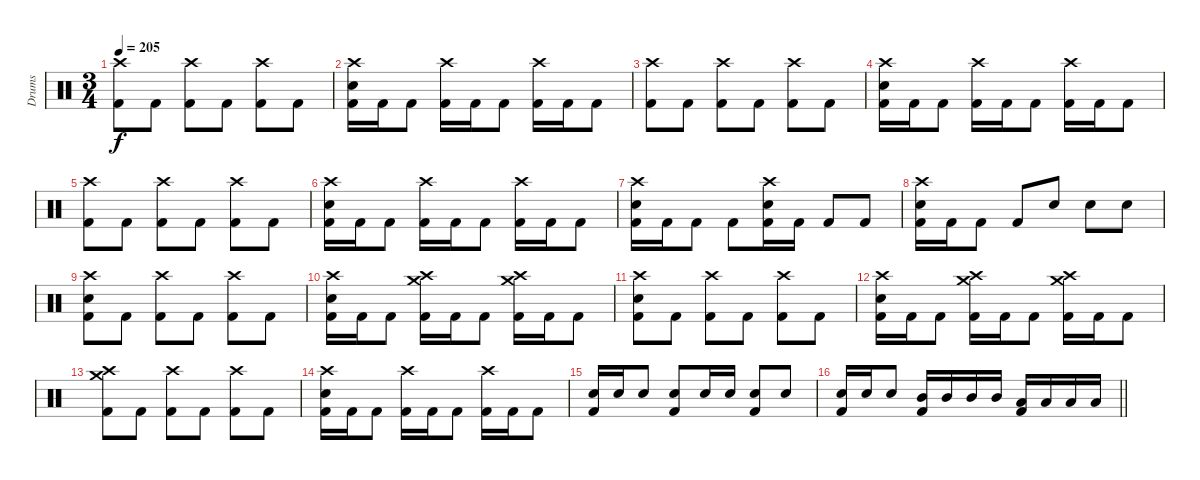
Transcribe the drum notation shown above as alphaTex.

\track ("Drums" "Drums") {instrument percussion}
\staff {score}
\articulation defaults
\ts (3 4)
\tempo 205
\clef neutral
\ks c
("Crash high (hit)" "Kick (hit) 2").8{dy f} "Kick (hit) 2".8 ("Crash high (hit)" "Kick (hit) 2").8 "Kick (hit) 2".8 ("Crash high (hit)" "Kick (hit) 2").8 "Kick (hit) 2".8 |
("Crash high (hit)" "Snare (hit) 2" "Kick (hit) 2").16 "Kick (hit) 2".16 "Kick (hit) 2".8 ("Crash high (hit)" "Kick (hit) 2").16 "Kick (hit) 2".16 "Kick (hit) 2".8 ("Crash high (hit)" "Kick (hit) 2").16 "Kick (hit) 2".16 "Kick (hit) 2".8 |
("Crash high (hit)" "Kick (hit) 2").8 "Kick (hit) 2".8 ("Crash high (hit)" "Kick (hit) 2").8 "Kick (hit) 2".8 ("Crash high (hit)" "Kick (hit) 2").8 "Kick (hit) 2".8 |
("Crash high (hit)" "Snare (hit) 2" "Kick (hit) 2").16 "Kick (hit) 2".16 "Kick (hit) 2".8 ("Crash high (hit)" "Kick (hit) 2").16 "Kick (hit) 2".16 "Kick (hit) 2".8 ("Crash high (hit)" "Kick (hit) 2").16 "Kick (hit) 2".16 "Kick (hit) 2".8 |
("Crash high (hit)" "Kick (hit) 2").8 "Kick (hit) 2".8 ("Crash high (hit)" "Kick (hit) 2").8 "Kick (hit) 2".8 ("Crash high (hit)" "Kick (hit) 2").8 "Kick (hit) 2".8 |
("Crash high (hit)" "Snare (hit) 2" "Kick (hit) 2").16 "Kick (hit) 2".16 "Kick (hit) 2".8 ("Crash high (hit)" "Kick (hit) 2").16 "Kick (hit) 2".16 "Kick (hit) 2".8 ("Crash high (hit)" "Kick (hit) 2").16 "Kick (hit) 2".16 "Kick (hit) 2".8 |
("Crash high (hit)" "Snare (hit) 2" "Kick (hit) 2").16 "Kick (hit) 2".16 "Kick (hit) 2".8 "Kick (hit) 2".8 ("Crash high (hit)" "Snare (hit) 2" "Kick (hit) 2").16 "Kick (hit) 2".16 "Kick (hit) 2".8 "Kick (hit) 2".8 |
("Crash high (hit)" "Snare (hit) 2" "Kick (hit) 2").16 "Kick (hit) 2".16 "Kick (hit) 2".8 "Kick (hit) 2".8 "Snare (hit) 2".8 "Snare (hit) 2".8 "Snare (hit) 2".8 |
("Crash high (hit)" "Snare (hit) 2" "Kick (hit) 2").8 "Kick (hit) 2".8 ("Crash high (hit)" "Kick (hit) 2").8 "Kick (hit) 2".8 ("Crash high (hit)" "Kick (hit) 2").8 "Kick (hit) 2".8 |
("Crash high (hit)" "Snare (hit) 2" "Kick (hit) 2").16 "Kick (hit) 2".16 "Kick (hit) 2".8 ("Crash medium (hit)" "Crash high (hit)" "Kick (hit) 2").16 "Kick (hit) 2".16 "Kick (hit) 2".8 ("Crash medium (hit)" "Crash high (hit)" "Kick (hit) 2").16 "Kick (hit) 2".16 "Kick (hit) 2".8 |
("Crash high (hit)" "Snare (hit) 2" "Kick (hit) 2").8 "Kick (hit) 2".8 ("Crash high (hit)" "Kick (hit) 2").8 "Kick (hit) 2".8 ("Crash high (hit)" "Kick (hit) 2").8 "Kick (hit) 2".8 |
("Crash high (hit)" "Snare (hit) 2" "Kick (hit) 2").16 "Kick (hit) 2".16 "Kick (hit) 2".8 ("Crash medium (hit)" "Crash high (hit)" "Kick (hit) 2").16 "Kick (hit) 2".16 "Kick (hit) 2".8 ("Crash medium (hit)" "Crash high (hit)" "Kick (hit) 2").16 "Kick (hit) 2".16 "Kick (hit) 2".8 |
("Crash medium (hit)" "Crash high (hit)" "Kick (hit) 2").8 "Kick (hit) 2".8 ("Crash high (hit)" "Kick (hit) 2").8 "Kick (hit) 2".8 ("Crash high (hit)" "Kick (hit) 2").8 "Kick (hit) 2".8 |
("Crash high (hit)" "Snare (hit) 2" "Kick (hit) 2").16 "Kick (hit) 2".16 "Kick (hit) 2".8 ("Crash high (hit)" "Kick (hit) 2").16 "Kick (hit) 2".16 "Kick (hit) 2".8 ("Crash high (hit)" "Kick (hit) 2").16 "Kick (hit) 2".16 "Kick (hit) 2".8 |
("Snare (hit) 2" "Kick (hit) 2").16 "Snare (hit) 2".16 "Snare (hit) 2".8 ("Snare (hit) 2" "Kick (hit) 2").8 "Snare (hit) 2".16 "Snare (hit) 2".16 ("Snare (hit) 2" "Kick (hit) 2").8 "Snare (hit) 2".8 |
\barLineRight lightlight
("Snare (hit) 2" "Kick (hit) 2").16 "Snare (hit) 2".16 "Snare (hit) 2".8 ("Mid Tom (hit)" "Kick (hit) 2").16 "Mid Tom (hit)".16 "Mid Tom (hit)".16 "Mid Tom (hit)".16 ("Low Tom (hit)" "Kick (hit) 2").16 "Low Tom (hit)".16 "Low Tom (hit)".16 "Low Tom (hit)".16
